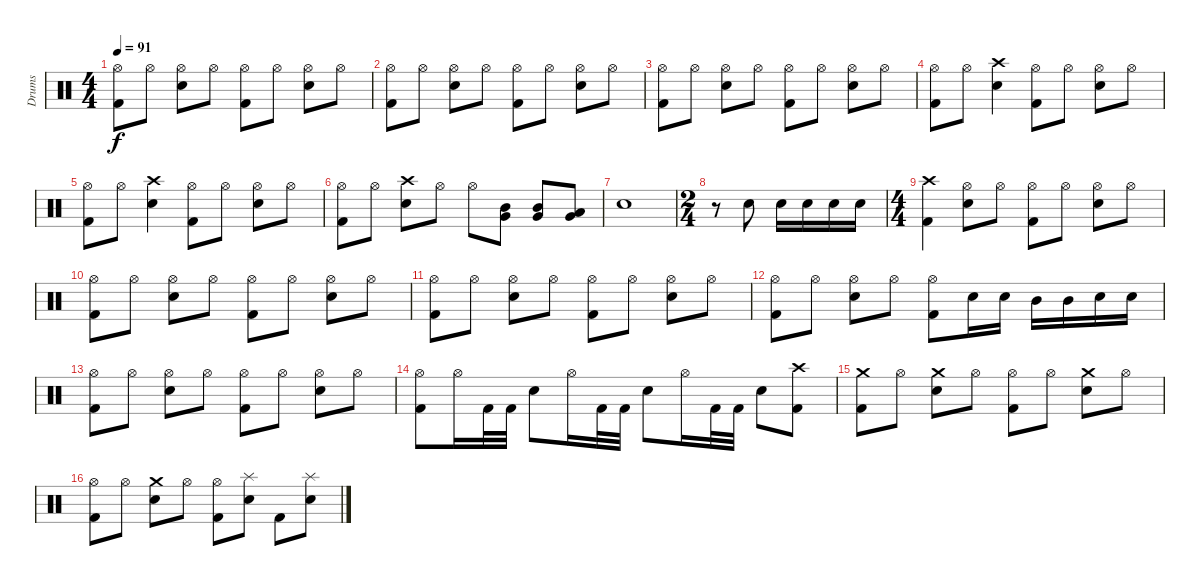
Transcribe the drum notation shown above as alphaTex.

\track ("Drums" "Drums") {instrument percussion}
\staff {score}
\articulation defaults
\ts (4 4)
\tempo 91
\clef neutral
\ks c
("Hi-Hat (open)" "Kick (hit) 2").8{dy f} "Hi-Hat (open)".8 ("Hi-Hat (open)" "Electric Snare (hit)").8 "Hi-Hat (open)".8 ("Hi-Hat (open)" "Kick (hit) 2").8 "Hi-Hat (open)".8 ("Hi-Hat (open)" "Electric Snare (hit)").8 "Hi-Hat (open)".8 |
("Hi-Hat (open)" "Kick (hit) 2").8 "Hi-Hat (open)".8 ("Hi-Hat (open)" "Electric Snare (hit)").8 "Hi-Hat (open)".8 ("Hi-Hat (open)" "Kick (hit) 2").8 "Hi-Hat (open)".8 ("Hi-Hat (open)" "Electric Snare (hit)").8 "Hi-Hat (open)".8 |
("Hi-Hat (open)" "Kick (hit) 2").8 "Hi-Hat (open)".8 ("Hi-Hat (open)" "Electric Snare (hit)").8 "Hi-Hat (open)".8 ("Hi-Hat (open)" "Kick (hit) 2").8 "Hi-Hat (open)".8 ("Hi-Hat (open)" "Electric Snare (hit)").8 "Hi-Hat (open)".8 |
("Hi-Hat (open)" "Kick (hit) 2").8 "Hi-Hat (open)".8 ("Crash high (hit)" "Electric Snare (hit)").4 ("Hi-Hat (open)" "Kick (hit) 2").8 "Hi-Hat (open)".8 ("Hi-Hat (open)" "Electric Snare (hit)").8 "Hi-Hat (open)".8 |
("Hi-Hat (open)" "Kick (hit) 2").8 "Hi-Hat (open)".8 ("Crash high (hit)" "Electric Snare (hit)").4 ("Hi-Hat (open)" "Kick (hit) 2").8 "Hi-Hat (open)".8 ("Hi-Hat (open)" "Electric Snare (hit)").8 "Hi-Hat (open)".8 |
("Hi-Hat (open)" "Kick (hit) 2").8 "Hi-Hat (open)".8 ("Crash high (hit)" "Electric Snare (hit)").8 "Hi-Hat (open)".8 "Hi-Hat (open)".8 ("Mid Tom (hit)" "Very Low Tom (hit)").8 ("Mid Tom (hit)" "Very Low Tom (hit)").8 ("Low Tom (hit)" "Very Low Tom (hit)").8 |
"Electric Snare (hit)".1 |
\ts (2 4)
r.8 "Electric Snare (hit)".8 "Electric Snare (hit)".16 "Electric Snare (hit)".16 "Electric Snare (hit)".16 "Electric Snare (hit)".16 |
\ts (4 4)
("Crash high (hit)" "Kick (hit) 2").4 ("Hi-Hat (open)" "Electric Snare (hit)").8 "Hi-Hat (open)".8 ("Hi-Hat (open)" "Kick (hit) 2").8 "Hi-Hat (open)".8 ("Hi-Hat (open)" "Electric Snare (hit)").8 "Hi-Hat (open)".8 |
("Hi-Hat (open)" "Kick (hit) 2").8 "Hi-Hat (open)".8 ("Hi-Hat (open)" "Electric Snare (hit)").8 "Hi-Hat (open)".8 ("Hi-Hat (open)" "Kick (hit) 2").8 "Hi-Hat (open)".8 ("Hi-Hat (open)" "Electric Snare (hit)").8 "Hi-Hat (open)".8 |
("Hi-Hat (open)" "Kick (hit) 2").8 "Hi-Hat (open)".8 ("Hi-Hat (open)" "Electric Snare (hit)").8 "Hi-Hat (open)".8 ("Hi-Hat (open)" "Kick (hit) 2").8 "Hi-Hat (open)".8 ("Hi-Hat (open)" "Electric Snare (hit)").8 "Hi-Hat (open)".8 |
("Hi-Hat (open)" "Kick (hit) 2").8 "Hi-Hat (open)".8 ("Hi-Hat (open)" "Electric Snare (hit)").8 "Hi-Hat (open)".8 ("Hi-Hat (open)" "Kick (hit) 2").8 "Electric Snare (hit)".16 "Electric Snare (hit)".16 "Mid Tom (hit)".16 "Mid Tom (hit)".16 "Electric Snare (hit)".16 "Electric Snare (hit)".16 |
("Hi-Hat (open)" "Kick (hit) 2").8 "Hi-Hat (open)".8 ("Hi-Hat (open)" "Electric Snare (hit)").8 "Hi-Hat (open)".8 ("Hi-Hat (open)" "Kick (hit) 2").8 "Hi-Hat (open)".8 ("Hi-Hat (open)" "Electric Snare (hit)").8 "Hi-Hat (open)".8 |
("Hi-Hat (open)" "Kick (hit) 2").8 "Hi-Hat (open)".16 "Kick (hit) 2".32 "Kick (hit) 2".32 "Electric Snare (hit)".8 "Hi-Hat (open)".16 "Kick (hit) 2".32 "Kick (hit) 2".32 "Electric Snare (hit)".8 "Hi-Hat (open)".16 "Kick (hit) 2".32 "Kick (hit) 2".32 "Electric Snare (hit)".8 ("Crash high (hit)" "Kick (hit) 2").8 |
("Crash medium (hit)" "Kick (hit) 2").8 "Hi-Hat (open)".8 ("Crash medium (hit)" "Electric Snare (hit)").8 "Hi-Hat (open)".8 ("Hi-Hat (open)" "Kick (hit) 2").8 "Hi-Hat (open)".8 ("Crash medium (hit)" "Electric Snare (hit)").8 "Hi-Hat (open)".8 |
("Hi-Hat (open)" "Kick (hit) 2").8 "Hi-Hat (open)".8 ("Crash medium (hit)" "Electric Snare (hit)").8 "Hi-Hat (open)".8 ("Hi-Hat (open)" "Kick (hit) 2").8 ("Splash (hit)" "Electric Snare (hit)").8 "Kick (hit) 2".8 ("Splash (hit)" "Electric Snare (hit)").8
